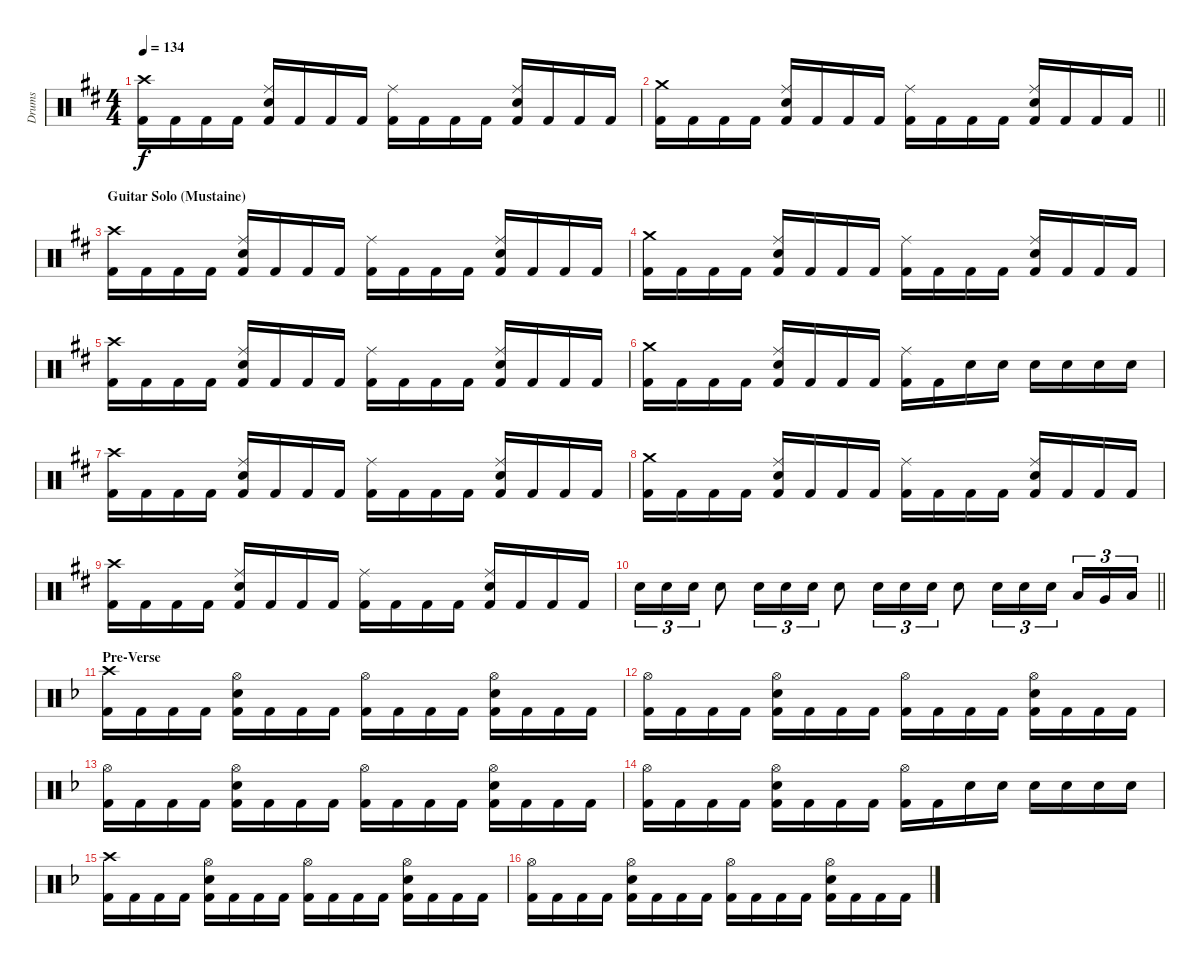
\track ("Drums" "Drums") {instrument percussion}
\staff {score}
\articulation defaults
\ts (4 4)
\tempo 134
\clef neutral
\ks bminor
("Crash high (hit)" "Kick (hit) 2").16{dy f} "Kick (hit) 2".16 "Kick (hit) 2".16 "Kick (hit) 2".16 ("Ride (middle)" "Snare (hit) 2" "Kick (hit) 2").16 "Kick (hit) 2".16 "Kick (hit) 2".16 "Kick (hit) 2".16 ("Ride (middle)" "Kick (hit) 2").16 "Kick (hit) 2".16 "Kick (hit) 2".16 "Kick (hit) 2".16 ("Ride (middle)" "Snare (hit) 2" "Kick (hit) 2").16 "Kick (hit) 2".16 "Kick (hit) 2".16 "Kick (hit) 2".16 |
\barLineRight lightlight
("Crash medium (hit)" "Kick (hit) 2").16 "Kick (hit) 2".16 "Kick (hit) 2".16 "Kick (hit) 2".16 ("Ride (middle)" "Snare (hit) 2" "Kick (hit) 2").16 "Kick (hit) 2".16 "Kick (hit) 2".16 "Kick (hit) 2".16 ("Ride (middle)" "Kick (hit) 2").16 "Kick (hit) 2".16 "Kick (hit) 2".16 "Kick (hit) 2".16 ("Ride (middle)" "Snare (hit) 2" "Kick (hit) 2").16 "Kick (hit) 2".16 "Kick (hit) 2".16 "Kick (hit) 2".16 |
\section ("" "Guitar Solo (Mustaine)")
("Crash high (hit)" "Kick (hit) 2").16 "Kick (hit) 2".16 "Kick (hit) 2".16 "Kick (hit) 2".16 ("Ride (middle)" "Snare (hit) 2" "Kick (hit) 2").16 "Kick (hit) 2".16 "Kick (hit) 2".16 "Kick (hit) 2".16 ("Ride (middle)" "Kick (hit) 2").16 "Kick (hit) 2".16 "Kick (hit) 2".16 "Kick (hit) 2".16 ("Ride (middle)" "Snare (hit) 2" "Kick (hit) 2").16 "Kick (hit) 2".16 "Kick (hit) 2".16 "Kick (hit) 2".16 |
("Crash medium (hit)" "Kick (hit) 2").16 "Kick (hit) 2".16 "Kick (hit) 2".16 "Kick (hit) 2".16 ("Ride (middle)" "Snare (hit) 2" "Kick (hit) 2").16 "Kick (hit) 2".16 "Kick (hit) 2".16 "Kick (hit) 2".16 ("Ride (middle)" "Kick (hit) 2").16 "Kick (hit) 2".16 "Kick (hit) 2".16 "Kick (hit) 2".16 ("Ride (middle)" "Snare (hit) 2" "Kick (hit) 2").16 "Kick (hit) 2".16 "Kick (hit) 2".16 "Kick (hit) 2".16 |
("Crash high (hit)" "Kick (hit) 2").16 "Kick (hit) 2".16 "Kick (hit) 2".16 "Kick (hit) 2".16 ("Ride (middle)" "Snare (hit) 2" "Kick (hit) 2").16 "Kick (hit) 2".16 "Kick (hit) 2".16 "Kick (hit) 2".16 ("Ride (middle)" "Kick (hit) 2").16 "Kick (hit) 2".16 "Kick (hit) 2".16 "Kick (hit) 2".16 ("Ride (middle)" "Snare (hit) 2" "Kick (hit) 2").16 "Kick (hit) 2".16 "Kick (hit) 2".16 "Kick (hit) 2".16 |
("Crash medium (hit)" "Kick (hit) 2").16 "Kick (hit) 2".16 "Kick (hit) 2".16 "Kick (hit) 2".16 ("Ride (middle)" "Snare (hit) 2" "Kick (hit) 2").16 "Kick (hit) 2".16 "Kick (hit) 2".16 "Kick (hit) 2".16 ("Ride (middle)" "Kick (hit) 2").16 "Kick (hit) 2".16 "Snare (hit) 2".16 "Snare (hit) 2".16 "Snare (hit) 2".16 "Snare (hit) 2".16 "Snare (hit) 2".16 "Snare (hit) 2".16 |
("Crash high (hit)" "Kick (hit) 2").16 "Kick (hit) 2".16 "Kick (hit) 2".16 "Kick (hit) 2".16 ("Ride (middle)" "Snare (hit) 2" "Kick (hit) 2").16 "Kick (hit) 2".16 "Kick (hit) 2".16 "Kick (hit) 2".16 ("Ride (middle)" "Kick (hit) 2").16 "Kick (hit) 2".16 "Kick (hit) 2".16 "Kick (hit) 2".16 ("Ride (middle)" "Snare (hit) 2" "Kick (hit) 2").16 "Kick (hit) 2".16 "Kick (hit) 2".16 "Kick (hit) 2".16 |
("Crash medium (hit)" "Kick (hit) 2").16 "Kick (hit) 2".16 "Kick (hit) 2".16 "Kick (hit) 2".16 ("Ride (middle)" "Snare (hit) 2" "Kick (hit) 2").16 "Kick (hit) 2".16 "Kick (hit) 2".16 "Kick (hit) 2".16 ("Ride (middle)" "Kick (hit) 2").16 "Kick (hit) 2".16 "Kick (hit) 2".16 "Kick (hit) 2".16 ("Ride (middle)" "Snare (hit) 2" "Kick (hit) 2").16 "Kick (hit) 2".16 "Kick (hit) 2".16 "Kick (hit) 2".16 |
("Crash high (hit)" "Kick (hit) 2").16 "Kick (hit) 2".16 "Kick (hit) 2".16 "Kick (hit) 2".16 ("Ride (middle)" "Snare (hit) 2" "Kick (hit) 2").16 "Kick (hit) 2".16 "Kick (hit) 2".16 "Kick (hit) 2".16 ("Ride (middle)" "Kick (hit) 2").16 "Kick (hit) 2".16 "Kick (hit) 2".16 "Kick (hit) 2".16 ("Ride (middle)" "Snare (hit) 2" "Kick (hit) 2").16 "Kick (hit) 2".16 "Kick (hit) 2".16 "Kick (hit) 2".16 |
\barLineRight lightlight "Snare (hit) 2".16{tu (3 2)} "Snare (hit) 2".16{tu (3 2)} "Snare (hit) 2".16{tu (3 2)} "Snare (hit) 2".8 "Snare (hit) 2".16{tu (3 2)} "Snare (hit) 2".16{tu (3 2)} "Snare (hit) 2".16{tu (3 2)} "Snare (hit) 2".8 "Snare (hit) 2".16{tu (3 2)} "Snare (hit) 2".16{tu (3 2)} "Snare (hit) 2".16{tu (3 2)} "Snare (hit) 2".8 "Snare (hit) 2".16{tu (3 2)} "Snare (hit) 2".16{tu (3 2)} "Snare (hit) 2".16{tu (3 2) beam splitsecondary} "Low Tom (hit)".16{tu (3 2)} "Very Low Tom (hit)".16{tu (3 2)} "Low Floor Tom (hit)".16{tu (3 2)}
|
\section ("" "Pre-Verse")
\ks dminor
("Crash high (hit)" "Kick (hit) 2").16 "Kick (hit) 2".16 "Kick (hit) 2".16 "Kick (hit) 2".16 ("Hi-Hat (open)" "Snare (hit) 2" "Kick (hit) 2").16 "Kick (hit) 2".16 "Kick (hit) 2".16 "Kick (hit) 2".16 ("Hi-Hat (open)" "Kick (hit) 2").16 "Kick (hit) 2".16 "Kick (hit) 2".16 "Kick (hit) 2".16 ("Hi-Hat (open)" "Snare (hit) 2" "Kick (hit) 2").16 "Kick (hit) 2".16 "Kick (hit) 2".16 "Kick (hit) 2".16 |
("Hi-Hat (open)" "Kick (hit) 2").16 "Kick (hit) 2".16 "Kick (hit) 2".16 "Kick (hit) 2".16 ("Hi-Hat (open)" "Snare (hit) 2" "Kick (hit) 2").16 "Kick (hit) 2".16 "Kick (hit) 2".16 "Kick (hit) 2".16 ("Hi-Hat (open)" "Kick (hit) 2").16 "Kick (hit) 2".16 "Kick (hit) 2".16 "Kick (hit) 2".16 ("Hi-Hat (open)" "Snare (hit) 2" "Kick (hit) 2").16 "Kick (hit) 2".16 "Kick (hit) 2".16 "Kick (hit) 2".16 |
("Hi-Hat (open)" "Kick (hit) 2").16 "Kick (hit) 2".16 "Kick (hit) 2".16 "Kick (hit) 2".16 ("Hi-Hat (open)" "Snare (hit) 2" "Kick (hit) 2").16 "Kick (hit) 2".16 "Kick (hit) 2".16 "Kick (hit) 2".16 ("Hi-Hat (open)" "Kick (hit) 2").16 "Kick (hit) 2".16 "Kick (hit) 2".16 "Kick (hit) 2".16 ("Hi-Hat (open)" "Snare (hit) 2" "Kick (hit) 2").16 "Kick (hit) 2".16 "Kick (hit) 2".16 "Kick (hit) 2".16 |
("Hi-Hat (open)" "Kick (hit) 2").16 "Kick (hit) 2".16 "Kick (hit) 2".16 "Kick (hit) 2".16 ("Hi-Hat (open)" "Snare (hit) 2" "Kick (hit) 2").16 "Kick (hit) 2".16 "Kick (hit) 2".16 "Kick (hit) 2".16 ("Hi-Hat (open)" "Kick (hit) 2").16 "Kick (hit) 2".16 "Snare (hit) 2".16 "Snare (hit) 2".16 "Snare (hit) 2".16 "Snare (hit) 2".16 "Snare (hit) 2".16 "Snare (hit) 2".16 |
("Crash high (hit)" "Kick (hit) 2").16 "Kick (hit) 2".16 "Kick (hit) 2".16 "Kick (hit) 2".16 ("Hi-Hat (open)" "Snare (hit) 2" "Kick (hit) 2").16 "Kick (hit) 2".16 "Kick (hit) 2".16 "Kick (hit) 2".16 ("Hi-Hat (open)" "Kick (hit) 2").16 "Kick (hit) 2".16 "Kick (hit) 2".16 "Kick (hit) 2".16 ("Hi-Hat (open)" "Snare (hit) 2" "Kick (hit) 2").16 "Kick (hit) 2".16 "Kick (hit) 2".16 "Kick (hit) 2".16 |
("Hi-Hat (open)" "Kick (hit) 2").16 "Kick (hit) 2".16 "Kick (hit) 2".16 "Kick (hit) 2".16 ("Hi-Hat (open)" "Snare (hit) 2" "Kick (hit) 2").16 "Kick (hit) 2".16 "Kick (hit) 2".16 "Kick (hit) 2".16 ("Hi-Hat (open)" "Kick (hit) 2").16 "Kick (hit) 2".16 "Kick (hit) 2".16 "Kick (hit) 2".16 ("Hi-Hat (open)" "Snare (hit) 2" "Kick (hit) 2").16 "Kick (hit) 2".16 "Kick (hit) 2".16 "Kick (hit) 2".16
